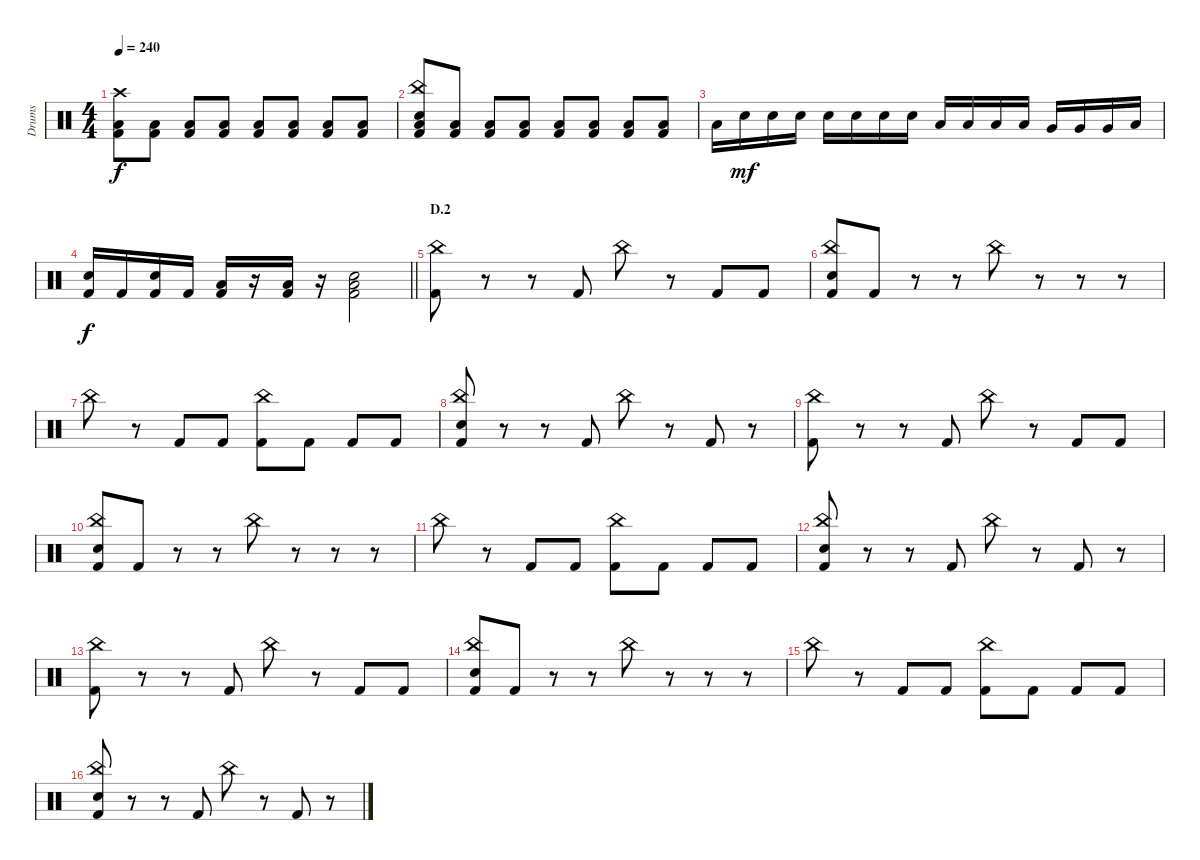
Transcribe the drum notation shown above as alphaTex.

\track ("Drums" "Drums") {instrument percussion}
\staff {score}
\articulation defaults
\ts (4 4)
\tempo 240
\clef neutral
\ks c
("Crash high (hit)" "Low Floor Tom (hit)" "Kick (hit) 2").8{dy f} ("Low Floor Tom (hit)" "Kick (hit) 2").8 ("Low Floor Tom (hit)" "Kick (hit) 2").8 ("Low Floor Tom (hit)" "Kick (hit) 2").8 ("Low Floor Tom (hit)" "Kick (hit) 2").8 ("Low Floor Tom (hit)" "Kick (hit) 2").8 ("Low Floor Tom (hit)" "Kick (hit) 2").8 ("Low Floor Tom (hit)" "Kick (hit) 2").8 |
("China (hit)" "Electric Snare (hit)" "Low Floor Tom (hit)" "Kick (hit) 2").8 ("Low Floor Tom (hit)" "Kick (hit) 2").8 ("Low Floor Tom (hit)" "Kick (hit) 2").8 ("Low Floor Tom (hit)" "Kick (hit) 2").8 ("Low Floor Tom (hit)" "Kick (hit) 2").8 ("Low Floor Tom (hit)" "Kick (hit) 2").8 ("Low Floor Tom (hit)" "Kick (hit) 2").8 ("Low Floor Tom (hit)" "Kick (hit) 2").8 |
"Low Floor Tom (hit)".16 "Electric Snare (hit)".16{dy mf} "Electric Snare (hit)".16 "Electric Snare (hit)".16 "Electric Snare (hit)".16 "Electric Snare (hit)".16 "Electric Snare (hit)".16 "Electric Snare (hit)".16 "Low Tom (hit)".16 "Low Tom (hit)".16 "Low Tom (hit)".16 "Low Tom (hit)".16 "Very Low Tom (hit)".16 "Very Low Tom (hit)".16 "Very Low Tom (hit)".16 "Low Floor Tom (hit)".16 |
\barLineRight lightlight
("Electric Snare (hit)" "Kick (hit) 2").16{dy f} "Kick (hit) 2".16 ("Electric Snare (hit)" "Kick (hit) 2").16 "Kick (hit) 2".16 ("Low Floor Tom (hit)" "Kick (hit) 2").16 r.16 ("Low Floor Tom (hit)" "Kick (hit) 2").16 r.16 ("Electric Snare (hit)" "Low Floor Tom (hit)" "Kick (hit) 2").2 |
\section ("" "D.2")
("China (hit)" "Kick (hit) 2").8 r.8 r.8 "Kick (hit) 2".8 "China (hit)".8 r.8 "Kick (hit) 2".8 "Kick (hit) 2".8 |
("China (hit)" "Electric Snare (hit)" "Kick (hit) 2").8 "Kick (hit) 2".8 r.8 r.8 "China (hit)".8 r.8 r.8 r.8 |
"China (hit)".8 r.8 "Kick (hit) 2".8 "Kick (hit) 2".8 ("China (hit)" "Kick (hit) 2").8 "Kick (hit) 2".8 "Kick (hit) 2".8 "Kick (hit) 2".8 |
("China (hit)" "Electric Snare (hit)" "Kick (hit) 2").8 r.8 r.8 "Kick (hit) 2".8 "China (hit)".8 r.8 "Kick (hit) 2".8 r.8 |
("China (hit)" "Kick (hit) 2").8 r.8 r.8 "Kick (hit) 2".8 "China (hit)".8 r.8 "Kick (hit) 2".8 "Kick (hit) 2".8 |
("China (hit)" "Electric Snare (hit)" "Kick (hit) 2").8 "Kick (hit) 2".8 r.8 r.8 "China (hit)".8 r.8 r.8 r.8 |
"China (hit)".8 r.8 "Kick (hit) 2".8 "Kick (hit) 2".8 ("China (hit)" "Kick (hit) 2").8 "Kick (hit) 2".8 "Kick (hit) 2".8 "Kick (hit) 2".8 |
("China (hit)" "Electric Snare (hit)" "Kick (hit) 2").8 r.8 r.8 "Kick (hit) 2".8 "China (hit)".8 r.8 "Kick (hit) 2".8 r.8 |
("China (hit)" "Kick (hit) 2").8 r.8 r.8 "Kick (hit) 2".8 "China (hit)".8 r.8 "Kick (hit) 2".8 "Kick (hit) 2".8 |
("China (hit)" "Electric Snare (hit)" "Kick (hit) 2").8 "Kick (hit) 2".8 r.8 r.8 "China (hit)".8 r.8 r.8 r.8 |
"China (hit)".8 r.8 "Kick (hit) 2".8 "Kick (hit) 2".8 ("China (hit)" "Kick (hit) 2").8 "Kick (hit) 2".8 "Kick (hit) 2".8 "Kick (hit) 2".8 |
("China (hit)" "Electric Snare (hit)" "Kick (hit) 2").8 r.8 r.8 "Kick (hit) 2".8 "China (hit)".8 r.8 "Kick (hit) 2".8 r.8
